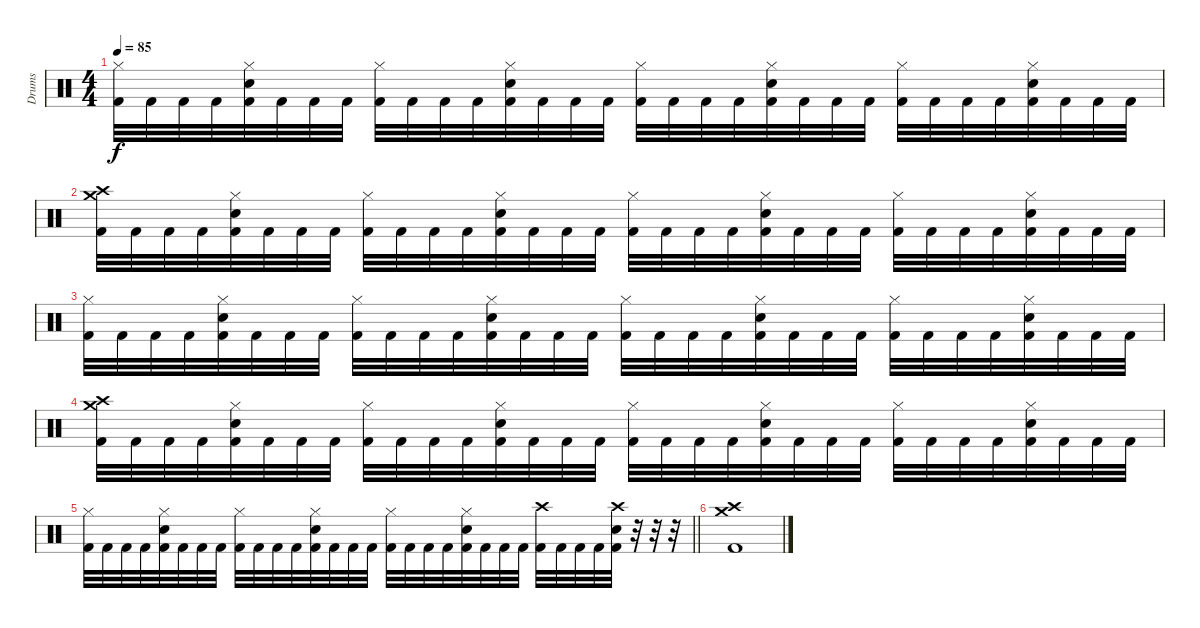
\track ("Drums" "Drums") {instrument percussion}
\staff {score}
\articulation defaults
\ts (4 4)
\tempo 85
\clef neutral
\ks c
("Hi-Hat (closed)" "Kick (hit) 2").32{dy f} "Kick (hit) 2".32 "Kick (hit) 2".32 "Kick (hit) 2".32 ("Hi-Hat (closed)" "Electric Snare (hit)" "Kick (hit) 2").32 "Kick (hit) 2".32 "Kick (hit) 2".32 "Kick (hit) 2".32 ("Hi-Hat (closed)" "Kick (hit) 2").32 "Kick (hit) 2".32 "Kick (hit) 2".32 "Kick (hit) 2".32 ("Hi-Hat (closed)" "Electric Snare (hit)" "Kick (hit) 2").32 "Kick (hit) 2".32 "Kick (hit) 2".32 "Kick (hit) 2".32 ("Hi-Hat (closed)" "Kick (hit) 2").32 "Kick (hit) 2".32 "Kick (hit) 2".32 "Kick (hit) 2".32 ("Hi-Hat (closed)" "Electric Snare (hit)" "Kick (hit) 2").32 "Kick (hit) 2".32 "Kick (hit) 2".32 "Kick (hit) 2".32 ("Hi-Hat (closed)" "Kick (hit) 2").32 "Kick (hit) 2".32 "Kick (hit) 2".32 "Kick (hit) 2".32 ("Hi-Hat (closed)" "Electric Snare (hit)" "Kick (hit) 2").32 "Kick (hit) 2".32 "Kick (hit) 2".32 "Kick (hit) 2".32 |
("Crash medium (hit)" "Crash high (hit)" "Kick (hit) 2").32 "Kick (hit) 2".32 "Kick (hit) 2".32 "Kick (hit) 2".32 ("Hi-Hat (closed)" "Electric Snare (hit)" "Kick (hit) 2").32 "Kick (hit) 2".32 "Kick (hit) 2".32 "Kick (hit) 2".32 ("Hi-Hat (closed)" "Kick (hit) 2").32 "Kick (hit) 2".32 "Kick (hit) 2".32 "Kick (hit) 2".32 ("Hi-Hat (closed)" "Electric Snare (hit)" "Kick (hit) 2").32 "Kick (hit) 2".32 "Kick (hit) 2".32 "Kick (hit) 2".32 ("Hi-Hat (closed)" "Kick (hit) 2").32 "Kick (hit) 2".32 "Kick (hit) 2".32 "Kick (hit) 2".32 ("Hi-Hat (closed)" "Electric Snare (hit)" "Kick (hit) 2").32 "Kick (hit) 2".32 "Kick (hit) 2".32 "Kick (hit) 2".32 ("Hi-Hat (closed)" "Kick (hit) 2").32 "Kick (hit) 2".32 "Kick (hit) 2".32 "Kick (hit) 2".32 ("Hi-Hat (closed)" "Electric Snare (hit)" "Kick (hit) 2").32 "Kick (hit) 2".32 "Kick (hit) 2".32 "Kick (hit) 2".32 |
("Hi-Hat (closed)" "Kick (hit) 2").32 "Kick (hit) 2".32 "Kick (hit) 2".32 "Kick (hit) 2".32 ("Hi-Hat (closed)" "Electric Snare (hit)" "Kick (hit) 2").32 "Kick (hit) 2".32 "Kick (hit) 2".32 "Kick (hit) 2".32 ("Hi-Hat (closed)" "Kick (hit) 2").32 "Kick (hit) 2".32 "Kick (hit) 2".32 "Kick (hit) 2".32 ("Hi-Hat (closed)" "Electric Snare (hit)" "Kick (hit) 2").32 "Kick (hit) 2".32 "Kick (hit) 2".32 "Kick (hit) 2".32 ("Hi-Hat (closed)" "Kick (hit) 2").32 "Kick (hit) 2".32 "Kick (hit) 2".32 "Kick (hit) 2".32 ("Hi-Hat (closed)" "Electric Snare (hit)" "Kick (hit) 2").32 "Kick (hit) 2".32 "Kick (hit) 2".32 "Kick (hit) 2".32 ("Hi-Hat (closed)" "Kick (hit) 2").32 "Kick (hit) 2".32 "Kick (hit) 2".32 "Kick (hit) 2".32 ("Hi-Hat (closed)" "Electric Snare (hit)" "Kick (hit) 2").32 "Kick (hit) 2".32 "Kick (hit) 2".32 "Kick (hit) 2".32 |
("Crash medium (hit)" "Crash high (hit)" "Kick (hit) 2").32 "Kick (hit) 2".32 "Kick (hit) 2".32 "Kick (hit) 2".32 ("Hi-Hat (closed)" "Electric Snare (hit)" "Kick (hit) 2").32 "Kick (hit) 2".32 "Kick (hit) 2".32 "Kick (hit) 2".32 ("Hi-Hat (closed)" "Kick (hit) 2").32 "Kick (hit) 2".32 "Kick (hit) 2".32 "Kick (hit) 2".32 ("Hi-Hat (closed)" "Electric Snare (hit)" "Kick (hit) 2").32 "Kick (hit) 2".32 "Kick (hit) 2".32 "Kick (hit) 2".32 ("Hi-Hat (closed)" "Kick (hit) 2").32 "Kick (hit) 2".32 "Kick (hit) 2".32 "Kick (hit) 2".32 ("Hi-Hat (closed)" "Electric Snare (hit)" "Kick (hit) 2").32 "Kick (hit) 2".32 "Kick (hit) 2".32 "Kick (hit) 2".32 ("Hi-Hat (closed)" "Kick (hit) 2").32 "Kick (hit) 2".32 "Kick (hit) 2".32 "Kick (hit) 2".32 ("Hi-Hat (closed)" "Electric Snare (hit)" "Kick (hit) 2").32 "Kick (hit) 2".32 "Kick (hit) 2".32 "Kick (hit) 2".32 |
\barLineRight lightlight
("Hi-Hat (closed)" "Kick (hit) 2").32 "Kick (hit) 2".32 "Kick (hit) 2".32 "Kick (hit) 2".32 ("Hi-Hat (closed)" "Electric Snare (hit)" "Kick (hit) 2").32 "Kick (hit) 2".32 "Kick (hit) 2".32 "Kick (hit) 2".32 ("Hi-Hat (closed)" "Kick (hit) 2").32 "Kick (hit) 2".32 "Kick (hit) 2".32 "Kick (hit) 2".32 ("Hi-Hat (closed)" "Electric Snare (hit)" "Kick (hit) 2").32 "Kick (hit) 2".32 "Kick (hit) 2".32 "Kick (hit) 2".32 ("Hi-Hat (closed)" "Kick (hit) 2").32 "Kick (hit) 2".32 "Kick (hit) 2".32 "Kick (hit) 2".32 ("Hi-Hat (closed)" "Electric Snare (hit)" "Kick (hit) 2").32 "Kick (hit) 2".32 "Kick (hit) 2".32 "Kick (hit) 2".32 ("Crash high (hit)" "Kick (hit) 2").32 "Kick (hit) 2".32 "Kick (hit) 2".32 "Kick (hit) 2".32 ("Crash high (hit)" "Electric Snare (hit)" "Kick (hit) 2").32 r.32 r.32 r.32 |
("Crash medium (hit)" "Crash high (hit)" "Kick (hit) 2").1
